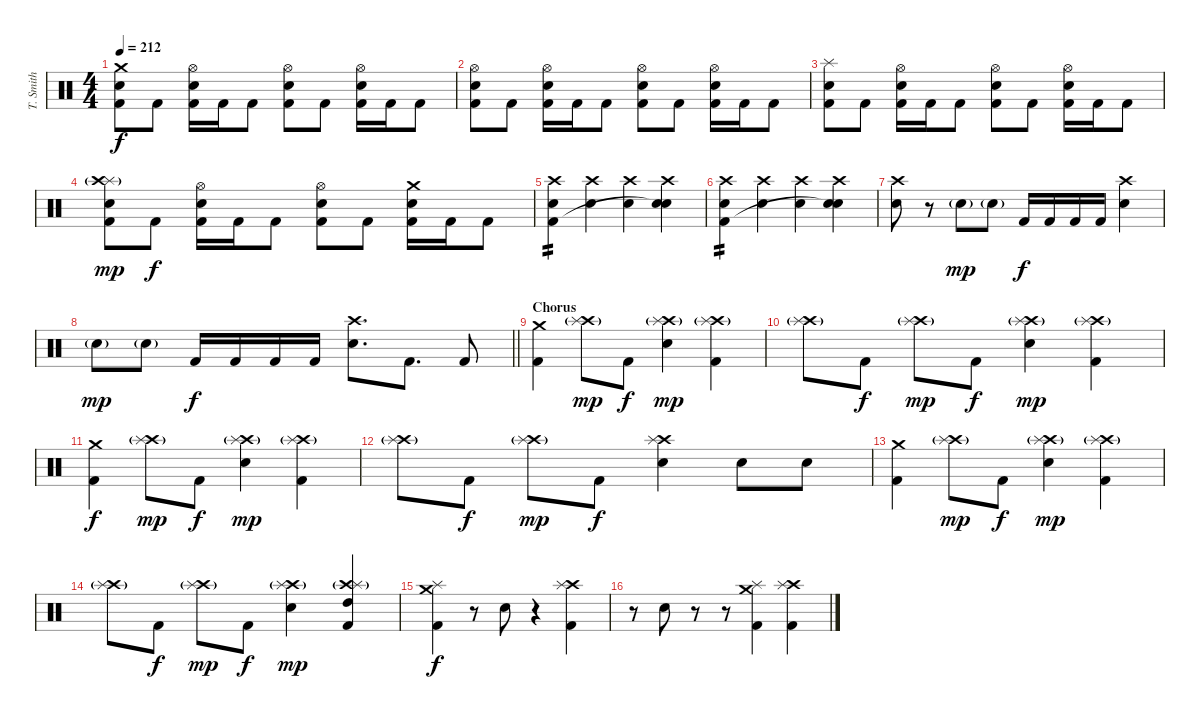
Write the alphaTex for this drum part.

\track ("T. Smith" "T. Smith") {instrument percussion}
\staff {score}
\articulation defaults
\ts (4 4)
\tempo 212
\clef neutral
\ks c
("Crash medium (hit)" "Electric Snare (hit)" "Kick (hit) 2").8{dy f} "Kick (hit) 2".8 ("Hi-Hat (open)" "Electric Snare (hit)" "Kick (hit) 2").16 "Kick (hit) 2".16 "Kick (hit) 2".8 ("Hi-Hat (open)" "Electric Snare (hit)" "Kick (hit) 2").8 "Kick (hit) 2".8 ("Hi-Hat (open)" "Electric Snare (hit)" "Kick (hit) 2").16 "Kick (hit) 2".16 "Kick (hit) 2".8 |
("Hi-Hat (open)" "Electric Snare (hit)" "Kick (hit) 2").8 "Kick (hit) 2".8 ("Hi-Hat (open)" "Electric Snare (hit)" "Kick (hit) 2").16 "Kick (hit) 2".16 "Kick (hit) 2".8 ("Hi-Hat (open)" "Electric Snare (hit)" "Kick (hit) 2").8 "Kick (hit) 2".8 ("Hi-Hat (open)" "Electric Snare (hit)" "Kick (hit) 2").16 "Kick (hit) 2".16 "Kick (hit) 2".8 |
("Splash (hit)" "Electric Snare (hit)" "Kick (hit) 2").8 "Kick (hit) 2".8 ("Hi-Hat (open)" "Electric Snare (hit)" "Kick (hit) 2").16 "Kick (hit) 2".16 "Kick (hit) 2".8 ("Hi-Hat (open)" "Electric Snare (hit)" "Kick (hit) 2").8 "Kick (hit) 2".8 ("Hi-Hat (open)" "Electric Snare (hit)" "Kick (hit) 2").16 "Kick (hit) 2".16 "Kick (hit) 2".8 |
("Splash (hit)" "Crash high (hit)"{g} "Electric Snare (hit)" "Kick (hit) 2").8{dy mp} "Kick (hit) 2".8{dy f} ("Hi-Hat (open)" "Electric Snare (hit)" "Kick (hit) 2").16 "Kick (hit) 2".16 "Kick (hit) 2".8 ("Hi-Hat (open)" "Electric Snare (hit)" "Kick (hit) 2").8 "Kick (hit) 2".8 ("Crash medium (hit)" "Electric Snare (hit)" "Kick (hit) 2").16 "Kick (hit) 2".16 "Kick (hit) 2".8 |
("Crash high (hit)" "Electric Snare (hit)" "Kick (hit) 2").4{tp 2} ("Crash high (hit)" "Electric Snare (hit)").4 ("Crash high (hit)" "Electric Snare (hit)").4 ("Crash high (hit)" "Electric Snare (hit)" "Snare (hit)"{t}).4 |
("Crash high (hit)" "Electric Snare (hit)" "Kick (hit) 2").4{tp 2} ("Crash high (hit)" "Electric Snare (hit)").4 ("Crash high (hit)" "Electric Snare (hit)").4 ("Crash high (hit)" "Electric Snare (hit)" "Snare (hit)"{t}).4 |
("Crash high (hit)" "Electric Snare (hit)").8 r.8 "Electric Snare (hit)"{g}.8{dy mp} "Electric Snare (hit)"{g}.8 "Kick (hit) 2".16{dy f} "Kick (hit) 2".16 "Kick (hit) 2".16 "Kick (hit) 2".16 ("Crash high (hit)" "Electric Snare (hit)").4 |
\barLineRight lightlight "Electric Snare (hit)"{g}.8{dy mp} "Electric Snare (hit)"{g}.8 "Kick (hit) 2".16{dy f} "Kick (hit) 2".16 "Kick (hit) 2".16 "Kick (hit) 2".16
("Crash high (hit)" "Electric Snare (hit)").8{d} "Kick (hit) 2".8{d} "Kick (hit) 2".8 |
\section ("" "Chorus")
("Crash medium (hit)" "Kick (hit) 2").4 ("Crash high (hit)"{g} "Splash (hit)").8{dy mp} "Kick (hit) 2".8{dy f} ("Crash high (hit)"{g} "Splash (hit)" "Electric Snare (hit)").4{dy mp} ("Crash high (hit)"{g} "Splash (hit)" "Kick (hit) 2").4 |
("Crash high (hit)"{g} "Splash (hit)").8 "Kick (hit) 2".8{dy f} ("Crash high (hit)"{g} "Splash (hit)").8{dy mp} "Kick (hit) 2".8{dy f} ("Crash high (hit)"{g} "Splash (hit)" "Electric Snare (hit)").4{dy mp} ("Crash high (hit)"{g} "Splash (hit)" "Kick (hit) 2").4 |
("Crash medium (hit)" "Kick (hit) 2").4{dy f} ("Crash high (hit)"{g} "Splash (hit)").8{dy mp} "Kick (hit) 2".8{dy f} ("Crash high (hit)"{g} "Splash (hit)" "Electric Snare (hit)").4{dy mp} ("Crash high (hit)"{g} "Splash (hit)" "Kick (hit) 2").4 |
("Crash high (hit)"{g} "Splash (hit)").8 "Kick (hit) 2".8{dy f} ("Crash high (hit)"{g} "Splash (hit)").8{dy mp} "Kick (hit) 2".8{dy f} ("Crash high (hit)" "Splash (hit)" "Electric Snare (hit)").4 "Electric Snare (hit)".8 "Electric Snare (hit)".8 |
("Crash medium (hit)" "Kick (hit) 2").4 ("Crash high (hit)"{g} "Splash (hit)").8{dy mp} "Kick (hit) 2".8{dy f} ("Crash high (hit)"{g} "Splash (hit)" "Electric Snare (hit)").4{dy mp} ("Crash high (hit)"{g} "Splash (hit)" "Kick (hit) 2").4 |
("Crash high (hit)"{g} "Splash (hit)").8 "Kick (hit) 2".8{dy f} ("Crash high (hit)"{g} "Splash (hit)").8{dy mp} "Kick (hit) 2".8{dy f} ("Crash high (hit)"{g} "Splash (hit)" "Electric Snare (hit)").4{dy mp} ("Crash high (hit)"{g} "Splash (hit)" "High Tom (hit)" "Kick (hit) 2").4 |
("Crash medium (hit)" "Splash (hit)" "Kick (hit) 2").4{dy f} r.8 "Electric Snare (hit)".8 r.4 ("Crash high (hit)" "Splash (hit)" "Kick (hit) 2").4 |
r.8 "Electric Snare (hit)".8 r.8 r.8 ("Crash medium (hit)" "Splash (hit)" "Kick (hit) 2").4 ("Crash high (hit)" "Splash (hit)" "Kick (hit) 2").4
